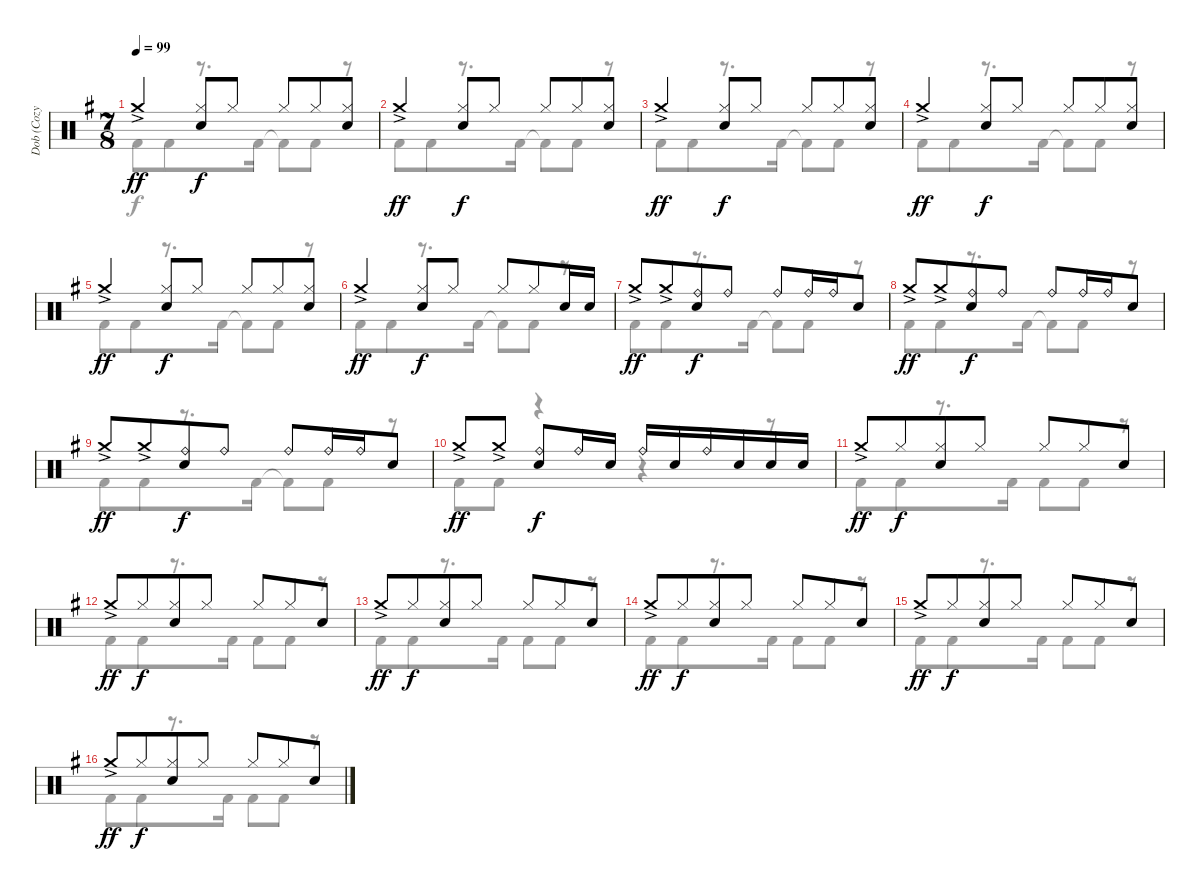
\track ("Dob (Cozy Powell)" "Dob (Cozy ") {instrument percussion}
\staff {score}
\articulation defaults
\voice
\ts (7 8)
\tempo 99
\clef neutral
\ks g "Crash medium (hit)"{ac}.4{dy ff}
("Hi-Hat (closed)" "Electric Snare (hit)").8{dy f beam merge} "Hi-Hat (closed)".8{beam split} "Hi-Hat (closed)".8{beam merge} "Hi-Hat (closed)".8 ("Hi-Hat (closed)" "Electric Snare (hit)").8 |
"Crash medium (hit)"{ac}.4{dy ff} ("Hi-Hat (closed)" "Electric Snare (hit)").8{dy f beam merge} "Hi-Hat (closed)".8{beam split} "Hi-Hat (closed)".8{beam merge} "Hi-Hat (closed)".8 ("Hi-Hat (closed)" "Electric Snare (hit)").8 |
"Crash medium (hit)"{ac}.4{dy ff} ("Hi-Hat (closed)" "Electric Snare (hit)").8{dy f beam merge} "Hi-Hat (closed)".8{beam split} "Hi-Hat (closed)".8{beam merge} "Hi-Hat (closed)".8 ("Hi-Hat (closed)" "Electric Snare (hit)").8 |
"Crash medium (hit)"{ac}.4{dy ff} ("Hi-Hat (closed)" "Electric Snare (hit)").8{dy f beam merge} "Hi-Hat (closed)".8{beam split} "Hi-Hat (closed)".8{beam merge} "Hi-Hat (closed)".8 ("Hi-Hat (closed)" "Electric Snare (hit)").8 |
"Crash medium (hit)"{ac}.4{dy ff} ("Hi-Hat (closed)" "Electric Snare (hit)").8{dy f beam merge} "Hi-Hat (closed)".8{beam split} "Hi-Hat (closed)".8{beam merge} "Hi-Hat (closed)".8 ("Hi-Hat (closed)" "Electric Snare (hit)").8 |
"Crash medium (hit)"{ac}.4{dy ff} ("Hi-Hat (closed)" "Electric Snare (hit)").8{dy f beam merge} "Hi-Hat (closed)".8{beam split} "Hi-Hat (closed)".8{beam merge} "Hi-Hat (closed)".8 "Electric Snare (hit)".16 "Electric Snare (hit)".16 |
"Crash medium (hit)"{ac}.8{dy ff} "Crash medium (hit)"{ac}.8 ("Ride (bell)" "Electric Snare (hit)").8{dy f beam merge} "Ride (bell)".8{beam split} "Ride (bell)".8{beam merge} "Ride (bell)".16 "Ride (bell)".16 "Electric Snare (hit)".8 |
"Crash medium (hit)"{ac}.8{dy ff} "Crash medium (hit)"{ac}.8 ("Ride (bell)" "Electric Snare (hit)").8{dy f beam merge} "Ride (bell)".8{beam split} "Ride (bell)".8{beam merge} "Ride (bell)".16 "Ride (bell)".16 "Electric Snare (hit)".8 |
"Crash medium (hit)"{ac}.8{dy ff} "Crash medium (hit)"{ac}.8 ("Ride (bell)" "Electric Snare (hit)").8{dy f beam merge} "Ride (bell)".8{beam split} "Ride (bell)".8{beam merge} "Ride (bell)".16 "Ride (bell)".16 "Electric Snare (hit)".8 |
"Crash medium (hit)"{ac}.8{dy ff} "Crash medium (hit)"{ac}.8{beam split} ("Ride (bell)" "Electric Snare (hit)").8{dy f beam merge} "Ride (bell)".16 "Electric Snare (hit)".16{beam split} "Ride (bell)".16 "Electric Snare (hit)".16{beam merge} "Ride (bell)".16 "Electric Snare (hit)".16 "Electric Snare (hit)".16 "Electric Snare (hit)".16 |
"Crash medium (hit)"{ac}.8{dy ff} "Hi-Hat (closed)".8{dy f} ("Hi-Hat (closed)" "Electric Snare (hit)").8{beam merge} "Hi-Hat (closed)".8{beam split} "Hi-Hat (closed)".8{beam merge} "Hi-Hat (closed)".8 "Electric Snare (hit)".8 |
"Crash medium (hit)"{ac}.8{dy ff} "Hi-Hat (closed)".8{dy f} ("Hi-Hat (closed)" "Electric Snare (hit)").8{beam merge} "Hi-Hat (closed)".8{beam split} "Hi-Hat (closed)".8{beam merge} "Hi-Hat (closed)".8 "Electric Snare (hit)".8 |
"Crash medium (hit)"{ac}.8{dy ff} "Hi-Hat (closed)".8{dy f} ("Hi-Hat (closed)" "Electric Snare (hit)").8{beam merge} "Hi-Hat (closed)".8{beam split} "Hi-Hat (closed)".8{beam merge} "Hi-Hat (closed)".8 "Electric Snare (hit)".8 |
"Crash medium (hit)"{ac}.8{dy ff} "Hi-Hat (closed)".8{dy f} ("Hi-Hat (closed)" "Electric Snare (hit)").8{beam merge} "Hi-Hat (closed)".8{beam split} "Hi-Hat (closed)".8{beam merge} "Hi-Hat (closed)".8 "Electric Snare (hit)".8 |
"Crash medium (hit)"{ac}.8{dy ff} "Hi-Hat (closed)".8{dy f} ("Hi-Hat (closed)" "Electric Snare (hit)").8{beam merge} "Hi-Hat (closed)".8{beam split} "Hi-Hat (closed)".8{beam merge} "Hi-Hat (closed)".8 "Electric Snare (hit)".8 |
"Crash medium (hit)"{ac}.8{dy ff} "Hi-Hat (closed)".8{dy f} ("Hi-Hat (closed)" "Electric Snare (hit)").8{beam merge} "Hi-Hat (closed)".8{beam split} "Hi-Hat (closed)".8{beam merge} "Hi-Hat (closed)".8 "Electric Snare (hit)".8
\voice
\clef neutral
\ottava regular
\simile none
\ks g "Kick (hit) 2".8{dy f beam merge} "Kick (hit) 2".8
r.8{d} "Kick (hit) 2".16 "Kick (hit) 2"{t}.8{beam merge} "Kick (hit) 2".8 r.8 |
"Kick (hit) 2".8{beam merge} "Kick (hit) 2".8 r.8{d} "Kick (hit) 2".16 "Kick (hit) 2"{t}.8{beam merge} "Kick (hit) 2".8 r.8 |
"Kick (hit) 2".8{beam merge} "Kick (hit) 2".8 r.8{d} "Kick (hit) 2".16 "Kick (hit) 2"{t}.8{beam merge} "Kick (hit) 2".8 r.8 |
"Kick (hit) 2".8{beam merge} "Kick (hit) 2".8 r.8{d} "Kick (hit) 2".16 "Kick (hit) 2"{t}.8{beam merge} "Kick (hit) 2".8 r.8 |
"Kick (hit) 2".8{beam merge} "Kick (hit) 2".8 r.8{d} "Kick (hit) 2".16 "Kick (hit) 2"{t}.8{beam merge} "Kick (hit) 2".8 r.8 |
"Kick (hit) 2".8{beam merge} "Kick (hit) 2".8 r.8{d} "Kick (hit) 2".16 "Kick (hit) 2"{t}.8{beam merge} "Kick (hit) 2".8 r.8 |
"Kick (hit) 2".8{beam merge} "Kick (hit) 2".8 r.8{d} "Kick (hit) 2".16 "Kick (hit) 2"{t}.8{beam merge} "Kick (hit) 2".8 r.8 |
"Kick (hit) 2".8{beam merge} "Kick (hit) 2".8 r.8{d} "Kick (hit) 2".16 "Kick (hit) 2"{t}.8{beam merge} "Kick (hit) 2".8 r.8 |
"Kick (hit) 2".8{beam merge} "Kick (hit) 2".8 r.8{d} "Kick (hit) 2".16 "Kick (hit) 2"{t}.8{beam merge} "Kick (hit) 2".8 r.8 |
"Kick (hit) 2".8{beam merge} "Kick (hit) 2".8 r.4 r.4 r.8 |
"Kick (hit) 2".8{beam merge} "Kick (hit) 2".8 r.8{d} "Kick (hit) 2".16 "Kick (hit) 2".8{beam merge} "Kick (hit) 2".8 r.8 |
"Kick (hit) 2".8{beam merge} "Kick (hit) 2".8 r.8{d} "Kick (hit) 2".16 "Kick (hit) 2".8{beam merge} "Kick (hit) 2".8 r.8 |
"Kick (hit) 2".8{beam merge} "Kick (hit) 2".8 r.8{d} "Kick (hit) 2".16 "Kick (hit) 2".8{beam merge} "Kick (hit) 2".8 r.8 |
"Kick (hit) 2".8{beam merge} "Kick (hit) 2".8 r.8{d} "Kick (hit) 2".16 "Kick (hit) 2".8{beam merge} "Kick (hit) 2".8 r.8 |
"Kick (hit) 2".8{beam merge} "Kick (hit) 2".8 r.8{d} "Kick (hit) 2".16 "Kick (hit) 2".8{beam merge} "Kick (hit) 2".8 r.8 |
"Kick (hit) 2".8{beam merge} "Kick (hit) 2".8 r.8{d} "Kick (hit) 2".16 "Kick (hit) 2".8{beam merge} "Kick (hit) 2".8 r.8
